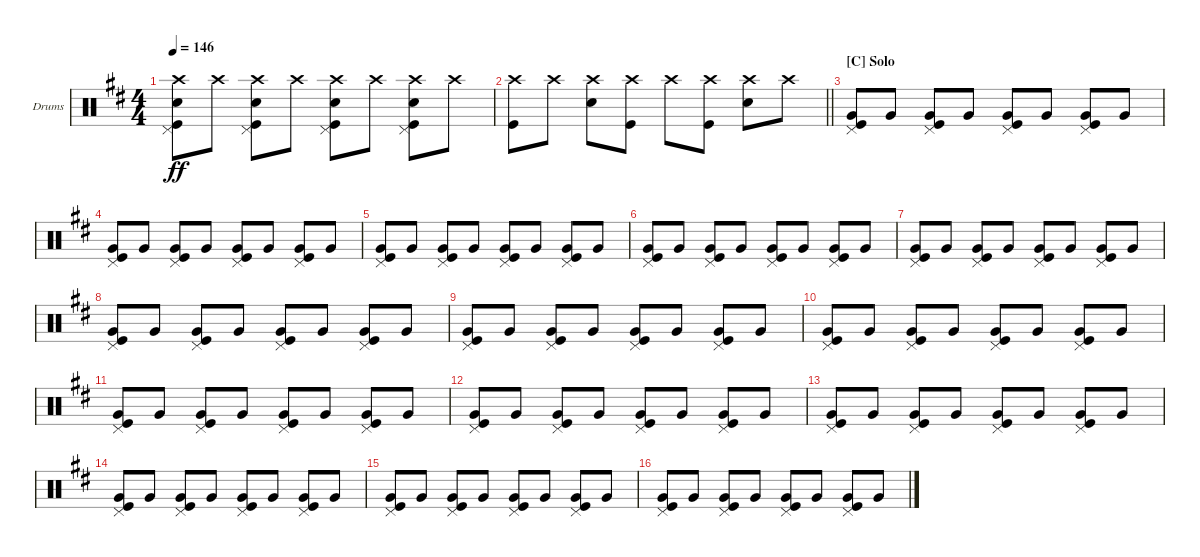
\bracketExtendMode groupsimilarinstruments
\firstSystemTrackNameOrientation horizontal
\otherSystemsTrackNameOrientation horizontal
\track ("Fabrizio Moretti" "Drums") {instrument percussion}
\staff {score}
\articulation defaults
\ts (4 4)
\tempo 146
\clef neutral
\ks d
("Crash high (hit)" "Pedal Hi-Hat (hit)" "Snare (hit) 2" "Kick (hit)").8{dy ff} "Crash high (hit)".8 ("Crash high (hit)" "Pedal Hi-Hat (hit)" "Snare (hit) 2" "Kick (hit)").8 "Crash high (hit)".8 ("Crash high (hit)" "Pedal Hi-Hat (hit)" "Snare (hit) 2" "Kick (hit)").8 "Crash high (hit)".8 ("Crash high (hit)" "Pedal Hi-Hat (hit)" "Snare (hit) 2" "Kick (hit)").8 "Crash high (hit)".8 |
\barLineRight lightlight
("Crash high (hit)" "Kick (hit)").8 "Crash high (hit)".8 ("Crash high (hit)" "Snare (hit) 2").8 ("Crash high (hit)" "Kick (hit)").8 "Crash high (hit)".8 ("Crash high (hit)" "Kick (hit)").8 ("Crash high (hit)" "Snare (hit) 2").8 "Crash high (hit)".8 |
\section ("C" "Solo")
("Very Low Tom (hit)" "Kick (hit)" "Pedal Hi-Hat (hit)").8 "Very Low Tom (hit)".8 ("Very Low Tom (hit)" "Kick (hit)" "Pedal Hi-Hat (hit)").8 "Very Low Tom (hit)".8 ("Very Low Tom (hit)" "Kick (hit)" "Pedal Hi-Hat (hit)").8 "Very Low Tom (hit)".8 ("Very Low Tom (hit)" "Kick (hit)" "Pedal Hi-Hat (hit)").8 "Very Low Tom (hit)".8 |
("Very Low Tom (hit)" "Kick (hit)" "Pedal Hi-Hat (hit)").8 "Very Low Tom (hit)".8 ("Very Low Tom (hit)" "Kick (hit)" "Pedal Hi-Hat (hit)").8 "Very Low Tom (hit)".8 ("Very Low Tom (hit)" "Kick (hit)" "Pedal Hi-Hat (hit)").8 "Very Low Tom (hit)".8 ("Very Low Tom (hit)" "Kick (hit)" "Pedal Hi-Hat (hit)").8 "Very Low Tom (hit)".8 |
("Very Low Tom (hit)" "Kick (hit)" "Pedal Hi-Hat (hit)").8 "Very Low Tom (hit)".8 ("Very Low Tom (hit)" "Kick (hit)" "Pedal Hi-Hat (hit)").8 "Very Low Tom (hit)".8 ("Very Low Tom (hit)" "Kick (hit)" "Pedal Hi-Hat (hit)").8 "Very Low Tom (hit)".8 ("Very Low Tom (hit)" "Kick (hit)" "Pedal Hi-Hat (hit)").8 "Very Low Tom (hit)".8 |
("Very Low Tom (hit)" "Kick (hit)" "Pedal Hi-Hat (hit)").8 "Very Low Tom (hit)".8 ("Very Low Tom (hit)" "Kick (hit)" "Pedal Hi-Hat (hit)").8 "Very Low Tom (hit)".8 ("Very Low Tom (hit)" "Kick (hit)" "Pedal Hi-Hat (hit)").8 "Very Low Tom (hit)".8 ("Very Low Tom (hit)" "Kick (hit)" "Pedal Hi-Hat (hit)").8 "Very Low Tom (hit)".8 |
("Very Low Tom (hit)" "Kick (hit)" "Pedal Hi-Hat (hit)").8 "Very Low Tom (hit)".8 ("Very Low Tom (hit)" "Kick (hit)" "Pedal Hi-Hat (hit)").8 "Very Low Tom (hit)".8 ("Very Low Tom (hit)" "Kick (hit)" "Pedal Hi-Hat (hit)").8 "Very Low Tom (hit)".8 ("Very Low Tom (hit)" "Kick (hit)" "Pedal Hi-Hat (hit)").8 "Very Low Tom (hit)".8 |
("Very Low Tom (hit)" "Kick (hit)" "Pedal Hi-Hat (hit)").8 "Very Low Tom (hit)".8 ("Very Low Tom (hit)" "Kick (hit)" "Pedal Hi-Hat (hit)").8 "Very Low Tom (hit)".8 ("Very Low Tom (hit)" "Kick (hit)" "Pedal Hi-Hat (hit)").8 "Very Low Tom (hit)".8 ("Very Low Tom (hit)" "Kick (hit)" "Pedal Hi-Hat (hit)").8 "Very Low Tom (hit)".8 |
("Very Low Tom (hit)" "Kick (hit)" "Pedal Hi-Hat (hit)").8 "Very Low Tom (hit)".8 ("Very Low Tom (hit)" "Kick (hit)" "Pedal Hi-Hat (hit)").8 "Very Low Tom (hit)".8 ("Very Low Tom (hit)" "Kick (hit)" "Pedal Hi-Hat (hit)").8 "Very Low Tom (hit)".8 ("Very Low Tom (hit)" "Kick (hit)" "Pedal Hi-Hat (hit)").8 "Very Low Tom (hit)".8 |
("Very Low Tom (hit)" "Kick (hit)" "Pedal Hi-Hat (hit)").8 "Very Low Tom (hit)".8 ("Very Low Tom (hit)" "Kick (hit)" "Pedal Hi-Hat (hit)").8 "Very Low Tom (hit)".8 ("Very Low Tom (hit)" "Kick (hit)" "Pedal Hi-Hat (hit)").8 "Very Low Tom (hit)".8 ("Very Low Tom (hit)" "Kick (hit)" "Pedal Hi-Hat (hit)").8 "Very Low Tom (hit)".8 |
("Very Low Tom (hit)" "Kick (hit)" "Pedal Hi-Hat (hit)").8 "Very Low Tom (hit)".8 ("Very Low Tom (hit)" "Kick (hit)" "Pedal Hi-Hat (hit)").8 "Very Low Tom (hit)".8 ("Very Low Tom (hit)" "Kick (hit)" "Pedal Hi-Hat (hit)").8 "Very Low Tom (hit)".8 ("Very Low Tom (hit)" "Kick (hit)" "Pedal Hi-Hat (hit)").8 "Very Low Tom (hit)".8 |
("Very Low Tom (hit)" "Kick (hit)" "Pedal Hi-Hat (hit)").8 "Very Low Tom (hit)".8 ("Very Low Tom (hit)" "Kick (hit)" "Pedal Hi-Hat (hit)").8 "Very Low Tom (hit)".8 ("Very Low Tom (hit)" "Kick (hit)" "Pedal Hi-Hat (hit)").8 "Very Low Tom (hit)".8 ("Very Low Tom (hit)" "Kick (hit)" "Pedal Hi-Hat (hit)").8 "Very Low Tom (hit)".8 |
("Very Low Tom (hit)" "Kick (hit)" "Pedal Hi-Hat (hit)").8 "Very Low Tom (hit)".8 ("Very Low Tom (hit)" "Kick (hit)" "Pedal Hi-Hat (hit)").8 "Very Low Tom (hit)".8 ("Very Low Tom (hit)" "Kick (hit)" "Pedal Hi-Hat (hit)").8 "Very Low Tom (hit)".8 ("Very Low Tom (hit)" "Kick (hit)" "Pedal Hi-Hat (hit)").8 "Very Low Tom (hit)".8 |
("Very Low Tom (hit)" "Kick (hit)" "Pedal Hi-Hat (hit)").8 "Very Low Tom (hit)".8 ("Very Low Tom (hit)" "Kick (hit)" "Pedal Hi-Hat (hit)").8 "Very Low Tom (hit)".8 ("Very Low Tom (hit)" "Kick (hit)" "Pedal Hi-Hat (hit)").8 "Very Low Tom (hit)".8 ("Very Low Tom (hit)" "Kick (hit)" "Pedal Hi-Hat (hit)").8 "Very Low Tom (hit)".8 |
("Very Low Tom (hit)" "Kick (hit)" "Pedal Hi-Hat (hit)").8 "Very Low Tom (hit)".8 ("Very Low Tom (hit)" "Kick (hit)" "Pedal Hi-Hat (hit)").8 "Very Low Tom (hit)".8 ("Very Low Tom (hit)" "Kick (hit)" "Pedal Hi-Hat (hit)").8 "Very Low Tom (hit)".8 ("Very Low Tom (hit)" "Kick (hit)" "Pedal Hi-Hat (hit)").8 "Very Low Tom (hit)".8 |
("Very Low Tom (hit)" "Kick (hit)" "Pedal Hi-Hat (hit)").8 "Very Low Tom (hit)".8 ("Very Low Tom (hit)" "Kick (hit)" "Pedal Hi-Hat (hit)").8 "Very Low Tom (hit)".8 ("Very Low Tom (hit)" "Kick (hit)" "Pedal Hi-Hat (hit)").8 "Very Low Tom (hit)".8 ("Very Low Tom (hit)" "Kick (hit)" "Pedal Hi-Hat (hit)").8 "Very Low Tom (hit)".8
